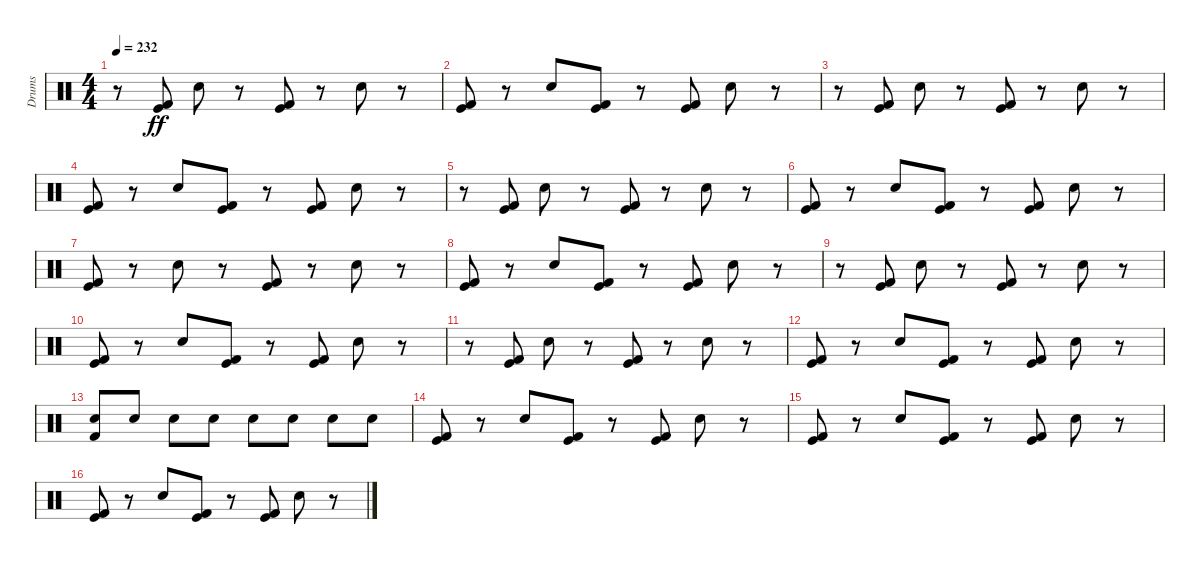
\track ("Drums" "Drums") {instrument percussion}
\staff {score}
\articulation defaults
\ts (4 4)
\tempo 232
\clef neutral
\ks c
r.8{dy ff} ("Kick (hit)" "Kick (hit) 2").8 "Snare (hit) 2".8 r.8 ("Kick (hit)" "Kick (hit) 2").8 r.8 "Snare (hit) 2".8 r.8 |
("Kick (hit)" "Kick (hit) 2").8 r.8 "Snare (hit) 2".8 ("Kick (hit)" "Kick (hit) 2").8 r.8 ("Kick (hit)" "Kick (hit) 2").8 "Snare (hit) 2".8 r.8 |
r.8 ("Kick (hit)" "Kick (hit) 2").8 "Snare (hit) 2".8 r.8 ("Kick (hit)" "Kick (hit) 2").8 r.8 "Snare (hit) 2".8 r.8 |
("Kick (hit)" "Kick (hit) 2").8 r.8 "Snare (hit) 2".8 ("Kick (hit)" "Kick (hit) 2").8 r.8 ("Kick (hit)" "Kick (hit) 2").8 "Snare (hit) 2".8 r.8 |
r.8 ("Kick (hit)" "Kick (hit) 2").8 "Snare (hit) 2".8 r.8 ("Kick (hit)" "Kick (hit) 2").8 r.8 "Snare (hit) 2".8 r.8 |
("Kick (hit)" "Kick (hit) 2").8 r.8 "Snare (hit) 2".8 ("Kick (hit)" "Kick (hit) 2").8 r.8 ("Kick (hit)" "Kick (hit) 2").8 "Snare (hit) 2".8 r.8 |
("Kick (hit)" "Kick (hit) 2").8 r.8 "Snare (hit) 2".8 r.8 ("Kick (hit)" "Kick (hit) 2").8 r.8 "Snare (hit) 2".8 r.8 |
("Kick (hit)" "Kick (hit) 2").8 r.8 "Snare (hit) 2".8 ("Kick (hit)" "Kick (hit) 2").8 r.8 ("Kick (hit)" "Kick (hit) 2").8 "Snare (hit) 2".8 r.8 |
r.8 ("Kick (hit)" "Kick (hit) 2").8 "Snare (hit) 2".8 r.8 ("Kick (hit)" "Kick (hit) 2").8 r.8 "Snare (hit) 2".8 r.8 |
("Kick (hit)" "Kick (hit) 2").8 r.8 "Snare (hit) 2".8 ("Kick (hit)" "Kick (hit) 2").8 r.8 ("Kick (hit)" "Kick (hit) 2").8 "Snare (hit) 2".8 r.8 |
r.8 ("Kick (hit)" "Kick (hit) 2").8 "Snare (hit) 2".8 r.8 ("Kick (hit)" "Kick (hit) 2").8 r.8 "Snare (hit) 2".8 r.8 |
("Kick (hit)" "Kick (hit) 2").8 r.8 "Snare (hit) 2".8 ("Kick (hit)" "Kick (hit) 2").8 r.8 ("Kick (hit)" "Kick (hit) 2").8 "Snare (hit) 2".8 r.8 |
("Kick (hit) 2" "Snare (hit) 2").8 "Snare (hit) 2".8 "Snare (hit) 2".8 "Snare (hit) 2".8 "Snare (hit) 2".8 "Snare (hit) 2".8 "Snare (hit) 2".8 "Snare (hit) 2".8 |
("Kick (hit)" "Kick (hit) 2").8 r.8 "Snare (hit) 2".8 ("Kick (hit)" "Kick (hit) 2").8 r.8 ("Kick (hit)" "Kick (hit) 2").8 "Snare (hit) 2".8 r.8 |
("Kick (hit)" "Kick (hit) 2").8 r.8 "Snare (hit) 2".8 ("Kick (hit)" "Kick (hit) 2").8 r.8 ("Kick (hit)" "Kick (hit) 2").8 "Snare (hit) 2".8 r.8 |
("Kick (hit)" "Kick (hit) 2").8 r.8 "Snare (hit) 2".8 ("Kick (hit)" "Kick (hit) 2").8 r.8 ("Kick (hit)" "Kick (hit) 2").8 "Snare (hit) 2".8 r.8
